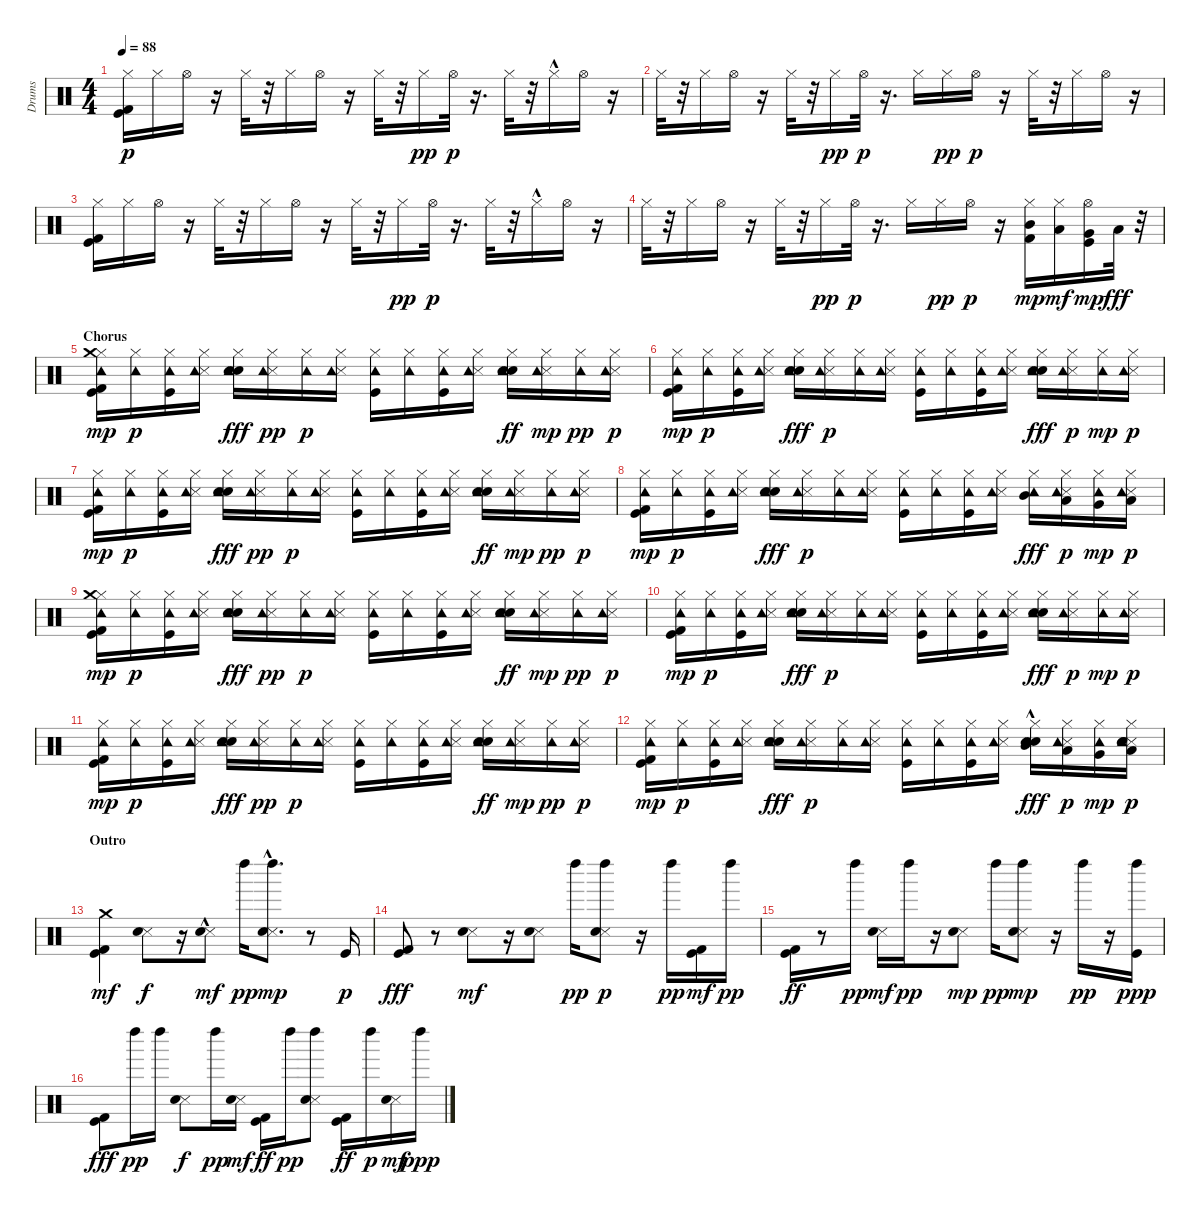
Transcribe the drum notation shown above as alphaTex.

\track ("Drums" "Drums") {instrument percussion}
\staff {score}
\articulation defaults
\ts (4 4)
\tempo 88
\clef neutral
\ks c
("Kick (hit)" "Kick (hit) 2" "Hi-Hat (closed)").16{dy p} "Hi-Hat (closed)".16 "Hi-Hat (open)".16 r.16 "Hi-Hat (closed)".32 r.32 "Hi-Hat (closed)".16 "Hi-Hat (open)".16 r.16 "Hi-Hat (closed)".32 r.32 "Hi-Hat (closed)".16{dy pp} "Hi-Hat (open)".32{dy p} r.16{d} "Hi-Hat (closed)".32 r.32 "Hi-Hat (closed)"{hac}.16 "Hi-Hat (open)".16 r.16 |
"Hi-Hat (closed)".32 r.32 "Hi-Hat (closed)".16 "Hi-Hat (open)".16 r.16 "Hi-Hat (closed)".32 r.32 "Hi-Hat (closed)".16{dy pp} "Hi-Hat (open)".32{dy p} r.16{d} "Hi-Hat (closed)".16 "Hi-Hat (closed)".16{dy pp} "Hi-Hat (open)".16{dy p} r.16 "Hi-Hat (closed)".32 r.32 "Hi-Hat (closed)".16 "Hi-Hat (open)".16 r.16 |
("Kick (hit) 2" "Kick (hit)" "Hi-Hat (closed)").16 "Hi-Hat (closed)".16 "Hi-Hat (open)".16 r.16 "Hi-Hat (closed)".32 r.32 "Hi-Hat (closed)".16 "Hi-Hat (open)".16 r.16 "Hi-Hat (closed)".32 r.32 "Hi-Hat (closed)".16{dy pp} "Hi-Hat (open)".32{dy p} r.16{d} "Hi-Hat (closed)".32 r.32 "Hi-Hat (closed)"{hac}.16 "Hi-Hat (open)".16 r.16 |
"Hi-Hat (closed)".32 r.32 "Hi-Hat (closed)".16 "Hi-Hat (open)".16 r.16 "Hi-Hat (closed)".32 r.32 "Hi-Hat (closed)".16{dy pp} "Hi-Hat (open)".32{dy p} r.16{d} "Hi-Hat (closed)".16 "Hi-Hat (closed)".16{dy pp} "Hi-Hat (open)".16{dy p} r.16 ("Kick (hit) 2" "Hi-Hat (closed)" "Mid Tom (hit)").16{dy mp} ("Hi-Hat (closed)" "Low Tom (hit)").16{dy mf} ("Kick (hit)" "Hi-Hat (open)" "Very Low Tom (hit)").16{dy mp} "Low Floor Tom (hit)".32{dy fff} r.32 |
\section ("" "Chorus")
("Kick (hit)" "Kick (hit) 2" "Hi-Hat (closed)" "Crash medium (hit)" "Tambourine (hit)").16{dy mp} ("Hi-Hat (closed)" "Tambourine (hit)").16{dy p} ("Kick (hit)" "Hi-Hat (closed)" "Tambourine (hit)").16 ("Snare (side stick) 3" "Hi-Hat (closed)" "Tambourine (hit)").16 ("Electric Snare (hit)" "Snare (hit) 2" "Hi-Hat (closed)" "Tambourine (hit)").16{dy fff} ("Snare (side stick) 3" "Hi-Hat (closed)" "Tambourine (hit)").16{dy pp} ("Hi-Hat (closed)" "Tambourine (hit)").16{dy p} ("Snare (side stick) 3" "Hi-Hat (closed)" "Tambourine (hit)").16 ("Kick (hit)" "Hi-Hat (closed)" "Tambourine (hit)").16 ("Hi-Hat (closed)" "Tambourine (hit)").16 ("Kick (hit)" "Hi-Hat (closed)" "Tambourine (hit)").16 ("Snare (side stick) 3" "Hi-Hat (closed)" "Tambourine (hit)").16 ("Snare (hit) 2" "Electric Snare (hit)" "Hi-Hat (closed)" "Tambourine (hit)").16{dy ff} ("Snare (side stick) 3" "Hi-Hat (closed)" "Tambourine (hit)").16{dy mp} ("Hi-Hat (closed)" "Tambourine (hit)").16{dy pp} ("Snare (side stick) 3" "Hi-Hat (closed)" "Tambourine (hit)").16{dy p} |
("Kick (hit)" "Kick (hit) 2" "Hi-Hat (closed)" "Tambourine (hit)").16{dy mp} ("Hi-Hat (closed)" "Tambourine (hit)").16{dy p} ("Kick (hit)" "Hi-Hat (closed)" "Tambourine (hit)").16 ("Snare (side stick) 3" "Hi-Hat (closed)" "Tambourine (hit)").16 ("Snare (hit) 2" "Electric Snare (hit)" "Hi-Hat (closed)" "Tambourine (hit)").16{dy fff} ("Snare (side stick) 3" "Hi-Hat (closed)" "Tambourine (hit)").16{dy p} ("Hi-Hat (closed)" "Tambourine (hit)").16 ("Snare (side stick) 3" "Hi-Hat (closed)" "Tambourine (hit)").16 ("Kick (hit)" "Hi-Hat (closed)" "Tambourine (hit)").16 ("Hi-Hat (closed)" "Tambourine (hit)").16 ("Kick (hit)" "Hi-Hat (closed)" "Tambourine (hit)").16 ("Snare (side stick) 3" "Hi-Hat (closed)" "Tambourine (hit)").16 ("Snare (hit) 2" "Electric Snare (hit)" "Hi-Hat (closed)" "Tambourine (hit)").16{dy fff} ("Snare (side stick) 3" "Hi-Hat (closed)" "Tambourine (hit)").16{dy p} ("Hi-Hat (closed)" "Tambourine (hit)").16{dy mp} ("Snare (side stick) 3" "Hi-Hat (closed)" "Tambourine (hit)").16{dy p} |
("Kick (hit)" "Kick (hit) 2" "Hi-Hat (closed)" "Tambourine (hit)").16{dy mp} ("Hi-Hat (closed)" "Tambourine (hit)").16{dy p} ("Kick (hit)" "Hi-Hat (closed)" "Tambourine (hit)").16 ("Snare (side stick) 3" "Hi-Hat (closed)" "Tambourine (hit)").16 ("Electric Snare (hit)" "Snare (hit) 2" "Hi-Hat (closed)" "Tambourine (hit)").16{dy fff} ("Snare (side stick) 3" "Hi-Hat (closed)" "Tambourine (hit)").16{dy pp} ("Hi-Hat (closed)" "Tambourine (hit)").16{dy p} ("Snare (side stick) 3" "Hi-Hat (closed)" "Tambourine (hit)").16 ("Kick (hit)" "Hi-Hat (closed)" "Tambourine (hit)").16 ("Hi-Hat (closed)" "Tambourine (hit)").16 ("Kick (hit)" "Hi-Hat (closed)" "Tambourine (hit)").16 ("Snare (side stick) 3" "Hi-Hat (closed)" "Tambourine (hit)").16 ("Snare (hit) 2" "Electric Snare (hit)" "Hi-Hat (closed)" "Tambourine (hit)").16{dy ff} ("Snare (side stick) 3" "Hi-Hat (closed)" "Tambourine (hit)").16{dy mp} ("Hi-Hat (closed)" "Tambourine (hit)").16{dy pp} ("Snare (side stick) 3" "Hi-Hat (closed)" "Tambourine (hit)").16{dy p} |
("Kick (hit)" "Kick (hit) 2" "Hi-Hat (closed)" "Tambourine (hit)").16{dy mp} ("Hi-Hat (closed)" "Tambourine (hit)").16{dy p} ("Kick (hit)" "Hi-Hat (closed)" "Tambourine (hit)").16 ("Snare (side stick) 3" "Hi-Hat (closed)" "Tambourine (hit)").16 ("Snare (hit) 2" "Electric Snare (hit)" "Hi-Hat (closed)" "Tambourine (hit)").16{dy fff} ("Snare (side stick) 3" "Hi-Hat (closed)" "Tambourine (hit)").16{dy p} ("Hi-Hat (closed)" "Tambourine (hit)").16 ("Snare (side stick) 3" "Hi-Hat (closed)" "Tambourine (hit)").16 ("Kick (hit)" "Hi-Hat (closed)" "Tambourine (hit)").16 ("Hi-Hat (closed)" "Tambourine (hit)").16 ("Kick (hit)" "Hi-Hat (closed)" "Tambourine (hit)").16 ("Snare (side stick) 3" "Hi-Hat (closed)" "Tambourine (hit)").16 ("Hi-Hat (closed)" "Mid Tom (hit)" "Tambourine (hit)").16{dy fff} ("Snare (side stick) 3" "Hi-Hat (closed)" "Low Tom (hit)" "Tambourine (hit)").16{dy p} ("Hi-Hat (closed)" "Very Low Tom (hit)" "Tambourine (hit)").16{dy mp} ("Snare (side stick) 3" "Hi-Hat (closed)" "Low Floor Tom (hit)" "Tambourine (hit)").16{dy p} |
("Kick (hit)" "Kick (hit) 2" "Hi-Hat (closed)" "Crash medium (hit)" "Tambourine (hit)").16{dy mp} ("Hi-Hat (closed)" "Tambourine (hit)").16{dy p} ("Kick (hit)" "Hi-Hat (closed)" "Tambourine (hit)").16 ("Snare (side stick) 3" "Hi-Hat (closed)" "Tambourine (hit)").16 ("Electric Snare (hit)" "Snare (hit) 2" "Hi-Hat (closed)" "Tambourine (hit)").16{dy fff} ("Snare (side stick) 3" "Hi-Hat (closed)" "Tambourine (hit)").16{dy pp} ("Hi-Hat (closed)" "Tambourine (hit)").16{dy p} ("Snare (side stick) 3" "Hi-Hat (closed)" "Tambourine (hit)").16 ("Kick (hit)" "Hi-Hat (closed)" "Tambourine (hit)").16 ("Hi-Hat (closed)" "Tambourine (hit)").16 ("Kick (hit)" "Hi-Hat (closed)" "Tambourine (hit)").16 ("Snare (side stick) 3" "Hi-Hat (closed)" "Tambourine (hit)").16 ("Snare (hit) 2" "Electric Snare (hit)" "Hi-Hat (closed)" "Tambourine (hit)").16{dy ff} ("Snare (side stick) 3" "Hi-Hat (closed)" "Tambourine (hit)").16{dy mp} ("Hi-Hat (closed)" "Tambourine (hit)").16{dy pp} ("Snare (side stick) 3" "Hi-Hat (closed)" "Tambourine (hit)").16{dy p} |
("Kick (hit)" "Kick (hit) 2" "Hi-Hat (closed)" "Tambourine (hit)").16{dy mp} ("Hi-Hat (closed)" "Tambourine (hit)").16{dy p} ("Kick (hit)" "Hi-Hat (closed)" "Tambourine (hit)").16 ("Snare (side stick) 3" "Hi-Hat (closed)" "Tambourine (hit)").16 ("Snare (hit) 2" "Electric Snare (hit)" "Hi-Hat (closed)" "Tambourine (hit)").16{dy fff} ("Snare (side stick) 3" "Hi-Hat (closed)" "Tambourine (hit)").16{dy p} ("Hi-Hat (closed)" "Tambourine (hit)").16 ("Snare (side stick) 3" "Hi-Hat (closed)" "Tambourine (hit)").16 ("Kick (hit)" "Hi-Hat (closed)" "Tambourine (hit)").16 ("Hi-Hat (closed)" "Tambourine (hit)").16 ("Kick (hit)" "Hi-Hat (closed)" "Tambourine (hit)").16 ("Snare (side stick) 3" "Hi-Hat (closed)" "Tambourine (hit)").16 ("Snare (hit) 2" "Electric Snare (hit)" "Hi-Hat (closed)" "Tambourine (hit)").16{dy fff} ("Snare (side stick) 3" "Hi-Hat (closed)" "Tambourine (hit)").16{dy p} ("Hi-Hat (closed)" "Tambourine (hit)").16{dy mp} ("Snare (side stick) 3" "Hi-Hat (closed)" "Tambourine (hit)").16{dy p} |
("Kick (hit)" "Kick (hit) 2" "Hi-Hat (closed)" "Tambourine (hit)").16{dy mp} ("Hi-Hat (closed)" "Tambourine (hit)").16{dy p} ("Kick (hit)" "Hi-Hat (closed)" "Tambourine (hit)").16 ("Snare (side stick) 3" "Hi-Hat (closed)" "Tambourine (hit)").16 ("Electric Snare (hit)" "Snare (hit) 2" "Hi-Hat (closed)" "Tambourine (hit)").16{dy fff} ("Snare (side stick) 3" "Hi-Hat (closed)" "Tambourine (hit)").16{dy pp} ("Hi-Hat (closed)" "Tambourine (hit)").16{dy p} ("Snare (side stick) 3" "Hi-Hat (closed)" "Tambourine (hit)").16 ("Kick (hit)" "Hi-Hat (closed)" "Tambourine (hit)").16 ("Hi-Hat (closed)" "Tambourine (hit)").16 ("Kick (hit)" "Hi-Hat (closed)" "Tambourine (hit)").16 ("Snare (side stick) 3" "Hi-Hat (closed)" "Tambourine (hit)").16 ("Snare (hit) 2" "Electric Snare (hit)" "Hi-Hat (closed)" "Tambourine (hit)").16{dy ff} ("Snare (side stick) 3" "Hi-Hat (closed)" "Tambourine (hit)").16{dy mp} ("Hi-Hat (closed)" "Tambourine (hit)").16{dy pp} ("Snare (side stick) 3" "Hi-Hat (closed)" "Tambourine (hit)").16{dy p} |
("Kick (hit)" "Kick (hit) 2" "Hi-Hat (closed)" "Tambourine (hit)").16{dy mp} ("Hi-Hat (closed)" "Tambourine (hit)").16{dy p} ("Kick (hit)" "Hi-Hat (closed)" "Tambourine (hit)").16 ("Snare (side stick) 3" "Hi-Hat (closed)" "Tambourine (hit)").16 ("Snare (hit) 2" "Electric Snare (hit)" "Hi-Hat (closed)" "Tambourine (hit)").16{dy fff} ("Snare (side stick) 3" "Hi-Hat (closed)" "Tambourine (hit)").16{dy p} ("Hi-Hat (closed)" "Tambourine (hit)").16 ("Snare (side stick) 3" "Hi-Hat (closed)" "Tambourine (hit)").16 ("Kick (hit)" "Hi-Hat (closed)" "Tambourine (hit)").16 ("Hi-Hat (closed)" "Tambourine (hit)").16 ("Kick (hit)" "Hi-Hat (closed)" "Tambourine (hit)").16 ("Snare (side stick) 3" "Hi-Hat (closed)" "Tambourine (hit)").16 ("Electric Snare (hit)" "Snare (hit) 2"{hac} "Hi-Hat (closed)" "Mid Tom (hit)" "Tambourine (hit)").16{dy fff} ("Snare (side stick) 3" "Hi-Hat (closed)" "Low Tom (hit)" "Tambourine (hit)").16{dy p} ("Hi-Hat (closed)" "Very Low Tom (hit)" "Tambourine (hit)").16{dy mp} ("Snare (side stick) 3" "Electric Snare (hit)" "Snare (hit) 2" "Hi-Hat (closed)" "Low Floor Tom (hit)" "Tambourine (hit)").16{dy p} |
\section ("" "Outro")
("Kick (hit) 2" "Kick (hit)" "Crash medium (hit)").4{dy mf} ("Snare (side stick) 3" "Snare (hit) 2").8{dy f} r.16 ("Snare (side stick) 3"{hac} "Snare (hit) 2"{hac}).8{dy mf} "Left Maraca (hit)".16{dy pp} ("Snare (side stick) 3"{hac} "Snare (hit) 2" "Left Maraca (hit)").8{d dy mp} r.8 "Kick (hit)".16{dy p} |
("Kick (hit)" "Kick (hit) 2").8{dy fff} r.8 ("Snare (side stick) 3" "Snare (hit) 2").8{dy mf} r.16 ("Snare (side stick) 3" "Snare (hit) 2").8 "Left Maraca (hit)".16{dy pp} ("Snare (side stick) 3" "Snare (hit) 2" "Left Maraca (hit)").8{dy p} r.16 "Left Maraca (hit)".16{dy pp} ("Kick (hit)" "Kick (hit) 2").16{dy mf} "Left Maraca (hit)".16{dy pp} |
("Kick (hit)" "Kick (hit) 2").16{dy ff} r.8 "Left Maraca (hit)".16{dy pp} ("Snare (side stick) 3" "Snare (hit) 2").16{dy mf} "Left Maraca (hit)".16{dy pp} r.16 ("Snare (side stick) 3" "Snare (hit) 2").8{dy mp} "Left Maraca (hit)".16{dy pp} ("Snare (side stick) 3" "Snare (hit) 2" "Left Maraca (hit)").8{dy mp} r.16 "Left Maraca (hit)".16{dy pp} r.16 ("Kick (hit)" "Left Maraca (hit)").16{dy ppp} |
("Kick (hit)" "Kick (hit) 2").8{dy fff} "Left Maraca (hit)".16{dy pp} "Left Maraca (hit)".16 ("Snare (side stick) 3" "Snare (hit) 2").8{dy f} "Left Maraca (hit)".16{dy pp} ("Snare (side stick) 3" "Snare (hit) 2").16{dy mf} ("Kick (hit) 2" "Kick (hit)").16{dy ff} "Left Maraca (hit)".16{dy pp} ("Snare (side stick) 3" "Snare (hit) 2" "Left Maraca (hit)").8 ("Kick (hit)" "Kick (hit) 2").16{dy ff} "Left Maraca (hit)".16{dy p} ("Snare (side stick) 3" "Snare (hit) 2").16{dy mf} "Left Maraca (hit)".16{dy ppp}
